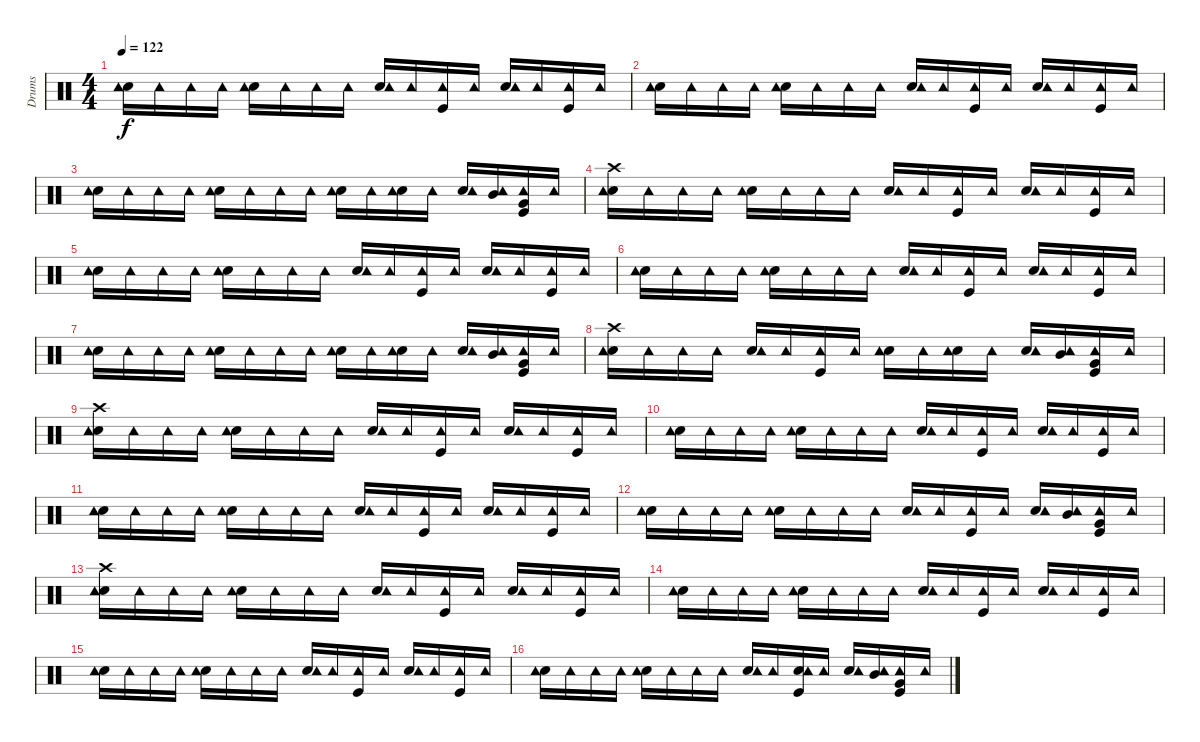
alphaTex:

\track ("Drums               " "Drums     ") {instrument percussion}
\staff {score}
\articulation defaults
\ts (4 4)
\tempo 122
\clef neutral
\ks c
("Electric Snare (hit)" "Tambourine (hit)").16{dy f} "Tambourine (hit)".16 "Tambourine (hit)".16 "Tambourine (hit)".16 ("Electric Snare (hit)" "Tambourine (hit)").16 "Tambourine (hit)".16 "Tambourine (hit)".16 "Tambourine (hit)".16 ("Electric Snare (hit)" "Tambourine (hit)").16 "Tambourine (hit)".16 ("Kick (hit)" "Tambourine (hit)").16 "Tambourine (hit)".16 ("Electric Snare (hit)" "Tambourine (hit)").16 "Tambourine (hit)".16 ("Kick (hit)" "Tambourine (hit)").16 "Tambourine (hit)".16 |
("Electric Snare (hit)" "Tambourine (hit)").16 "Tambourine (hit)".16 "Tambourine (hit)".16 "Tambourine (hit)".16 ("Electric Snare (hit)" "Tambourine (hit)").16 "Tambourine (hit)".16 "Tambourine (hit)".16 "Tambourine (hit)".16 ("Electric Snare (hit)" "Tambourine (hit)").16 "Tambourine (hit)".16 ("Kick (hit)" "Tambourine (hit)").16 "Tambourine (hit)".16 ("Electric Snare (hit)" "Tambourine (hit)").16 "Tambourine (hit)".16 ("Kick (hit)" "Tambourine (hit)").16 "Tambourine (hit)".16 |
("Electric Snare (hit)" "Tambourine (hit)").16 "Tambourine (hit)".16 "Tambourine (hit)".16 "Tambourine (hit)".16 ("Electric Snare (hit)" "Tambourine (hit)").16 "Tambourine (hit)".16 "Tambourine (hit)".16 "Tambourine (hit)".16 ("Electric Snare (hit)" "Tambourine (hit)").16 "Tambourine (hit)".16 ("Electric Snare (hit)" "Tambourine (hit)").16 "Tambourine (hit)".16 ("Electric Snare (hit)" "Tambourine (hit)").16 ("Mid Tom (hit)" "Tambourine (hit)").16 ("Kick (hit)" "Very Low Tom (hit)" "Tambourine (hit)").16 "Tambourine (hit)".16 |
("Electric Snare (hit)" "Crash high (hit)" "Tambourine (hit)").16 "Tambourine (hit)".16 "Tambourine (hit)".16 "Tambourine (hit)".16 ("Electric Snare (hit)" "Tambourine (hit)").16 "Tambourine (hit)".16 "Tambourine (hit)".16 "Tambourine (hit)".16 ("Electric Snare (hit)" "Tambourine (hit)").16 "Tambourine (hit)".16 ("Kick (hit)" "Tambourine (hit)").16 "Tambourine (hit)".16 ("Electric Snare (hit)" "Tambourine (hit)").16 "Tambourine (hit)".16 ("Kick (hit)" "Tambourine (hit)").16 "Tambourine (hit)".16 |
("Electric Snare (hit)" "Tambourine (hit)").16 "Tambourine (hit)".16 "Tambourine (hit)".16 "Tambourine (hit)".16 ("Electric Snare (hit)" "Tambourine (hit)").16 "Tambourine (hit)".16 "Tambourine (hit)".16 "Tambourine (hit)".16 ("Electric Snare (hit)" "Tambourine (hit)").16 "Tambourine (hit)".16 ("Kick (hit)" "Tambourine (hit)").16 "Tambourine (hit)".16 ("Electric Snare (hit)" "Tambourine (hit)").16 "Tambourine (hit)".16 ("Kick (hit)" "Tambourine (hit)").16 "Tambourine (hit)".16 |
("Electric Snare (hit)" "Tambourine (hit)").16 "Tambourine (hit)".16 "Tambourine (hit)".16 "Tambourine (hit)".16 ("Electric Snare (hit)" "Tambourine (hit)").16 "Tambourine (hit)".16 "Tambourine (hit)".16 "Tambourine (hit)".16 ("Electric Snare (hit)" "Tambourine (hit)").16 "Tambourine (hit)".16 ("Kick (hit)" "Tambourine (hit)").16 "Tambourine (hit)".16 ("Electric Snare (hit)" "Tambourine (hit)").16 "Tambourine (hit)".16 ("Kick (hit)" "Tambourine (hit)").16 "Tambourine (hit)".16 |
("Electric Snare (hit)" "Tambourine (hit)").16 "Tambourine (hit)".16 "Tambourine (hit)".16 "Tambourine (hit)".16 ("Electric Snare (hit)" "Tambourine (hit)").16 "Tambourine (hit)".16 "Tambourine (hit)".16 "Tambourine (hit)".16 ("Electric Snare (hit)" "Tambourine (hit)").16 "Tambourine (hit)".16 ("Electric Snare (hit)" "Tambourine (hit)").16 "Tambourine (hit)".16 ("Electric Snare (hit)" "Tambourine (hit)").16 ("Mid Tom (hit)" "Tambourine (hit)").16 ("Kick (hit)" "Very Low Tom (hit)" "Tambourine (hit)").16 "Tambourine (hit)".16 |
("Electric Snare (hit)" "Crash high (hit)" "Tambourine (hit)").16 "Tambourine (hit)".16 "Tambourine (hit)".16 "Tambourine (hit)".16 ("Electric Snare (hit)" "Tambourine (hit)").16 "Tambourine (hit)".16 ("Kick (hit)" "Tambourine (hit)").16 "Tambourine (hit)".16 ("Electric Snare (hit)" "Tambourine (hit)").16 "Tambourine (hit)".16 ("Electric Snare (hit)" "Tambourine (hit)").16 "Tambourine (hit)".16 ("Electric Snare (hit)" "Tambourine (hit)").16 ("Mid Tom (hit)" "Tambourine (hit)").16 ("Kick (hit)" "Very Low Tom (hit)" "Tambourine (hit)").16 "Tambourine (hit)".16 |
("Electric Snare (hit)" "Crash high (hit)" "Tambourine (hit)").16 "Tambourine (hit)".16 "Tambourine (hit)".16 "Tambourine (hit)".16 ("Electric Snare (hit)" "Tambourine (hit)").16 "Tambourine (hit)".16 "Tambourine (hit)".16 "Tambourine (hit)".16 ("Electric Snare (hit)" "Tambourine (hit)").16 "Tambourine (hit)".16 ("Kick (hit)" "Tambourine (hit)").16 "Tambourine (hit)".16 ("Electric Snare (hit)" "Tambourine (hit)").16 "Tambourine (hit)".16 ("Kick (hit)" "Tambourine (hit)").16 "Tambourine (hit)".16 |
("Electric Snare (hit)" "Tambourine (hit)").16 "Tambourine (hit)".16 "Tambourine (hit)".16 "Tambourine (hit)".16 ("Electric Snare (hit)" "Tambourine (hit)").16 "Tambourine (hit)".16 "Tambourine (hit)".16 "Tambourine (hit)".16 ("Electric Snare (hit)" "Tambourine (hit)").16 "Tambourine (hit)".16 ("Kick (hit)" "Tambourine (hit)").16 "Tambourine (hit)".16 ("Electric Snare (hit)" "Tambourine (hit)").16 "Tambourine (hit)".16 ("Kick (hit)" "Tambourine (hit)").16 "Tambourine (hit)".16 |
("Electric Snare (hit)" "Tambourine (hit)").16 "Tambourine (hit)".16 "Tambourine (hit)".16 "Tambourine (hit)".16 ("Electric Snare (hit)" "Tambourine (hit)").16 "Tambourine (hit)".16 "Tambourine (hit)".16 "Tambourine (hit)".16 ("Electric Snare (hit)" "Tambourine (hit)").16 "Tambourine (hit)".16 ("Kick (hit)" "Tambourine (hit)").16 "Tambourine (hit)".16 ("Electric Snare (hit)" "Tambourine (hit)").16 "Tambourine (hit)".16 ("Kick (hit)" "Tambourine (hit)").16 "Tambourine (hit)".16 |
("Electric Snare (hit)" "Tambourine (hit)").16 "Tambourine (hit)".16 "Tambourine (hit)".16 "Tambourine (hit)".16 ("Electric Snare (hit)" "Tambourine (hit)").16 "Tambourine (hit)".16 "Tambourine (hit)".16 "Tambourine (hit)".16 ("Electric Snare (hit)" "Tambourine (hit)").16 "Tambourine (hit)".16 ("Kick (hit)" "Tambourine (hit)").16 "Tambourine (hit)".16 ("Electric Snare (hit)" "Tambourine (hit)").16 ("Mid Tom (hit)" "Tambourine (hit)").16 ("Kick (hit)" "Very Low Tom (hit)" "Tambourine (hit)").16 "Tambourine (hit)".16 |
("Electric Snare (hit)" "Crash high (hit)" "Tambourine (hit)").16 "Tambourine (hit)".16 "Tambourine (hit)".16 "Tambourine (hit)".16 ("Electric Snare (hit)" "Tambourine (hit)").16 "Tambourine (hit)".16 "Tambourine (hit)".16 "Tambourine (hit)".16 ("Electric Snare (hit)" "Tambourine (hit)").16 "Tambourine (hit)".16 ("Kick (hit)" "Tambourine (hit)").16 "Tambourine (hit)".16 ("Electric Snare (hit)" "Tambourine (hit)").16 "Tambourine (hit)".16 ("Kick (hit)" "Tambourine (hit)").16 "Tambourine (hit)".16 |
("Electric Snare (hit)" "Tambourine (hit)").16 "Tambourine (hit)".16 "Tambourine (hit)".16 "Tambourine (hit)".16 ("Electric Snare (hit)" "Tambourine (hit)").16 "Tambourine (hit)".16 "Tambourine (hit)".16 "Tambourine (hit)".16 ("Electric Snare (hit)" "Tambourine (hit)").16 "Tambourine (hit)".16 ("Kick (hit)" "Tambourine (hit)").16 "Tambourine (hit)".16 ("Electric Snare (hit)" "Tambourine (hit)").16 "Tambourine (hit)".16 ("Kick (hit)" "Tambourine (hit)").16 "Tambourine (hit)".16 |
("Electric Snare (hit)" "Tambourine (hit)").16 "Tambourine (hit)".16 "Tambourine (hit)".16 "Tambourine (hit)".16 ("Electric Snare (hit)" "Tambourine (hit)").16 "Tambourine (hit)".16 "Tambourine (hit)".16 "Tambourine (hit)".16 ("Electric Snare (hit)" "Tambourine (hit)").16 "Tambourine (hit)".16 ("Kick (hit)" "Tambourine (hit)").16 "Tambourine (hit)".16 ("Electric Snare (hit)" "Tambourine (hit)").16 "Tambourine (hit)".16 ("Kick (hit)" "Tambourine (hit)").16 "Tambourine (hit)".16 |
("Electric Snare (hit)" "Tambourine (hit)").16 "Tambourine (hit)".16 "Tambourine (hit)".16 "Tambourine (hit)".16 ("Electric Snare (hit)" "Tambourine (hit)").16 "Tambourine (hit)".16 "Tambourine (hit)".16 "Tambourine (hit)".16 ("Electric Snare (hit)" "Tambourine (hit)").16 "Tambourine (hit)".16 ("Kick (hit)" "Electric Snare (hit)" "Tambourine (hit)").16 "Tambourine (hit)".16 ("Electric Snare (hit)" "Tambourine (hit)").16 ("Mid Tom (hit)" "Tambourine (hit)").16 ("Kick (hit)" "Very Low Tom (hit)" "Tambourine (hit)").16 "Tambourine (hit)".16
